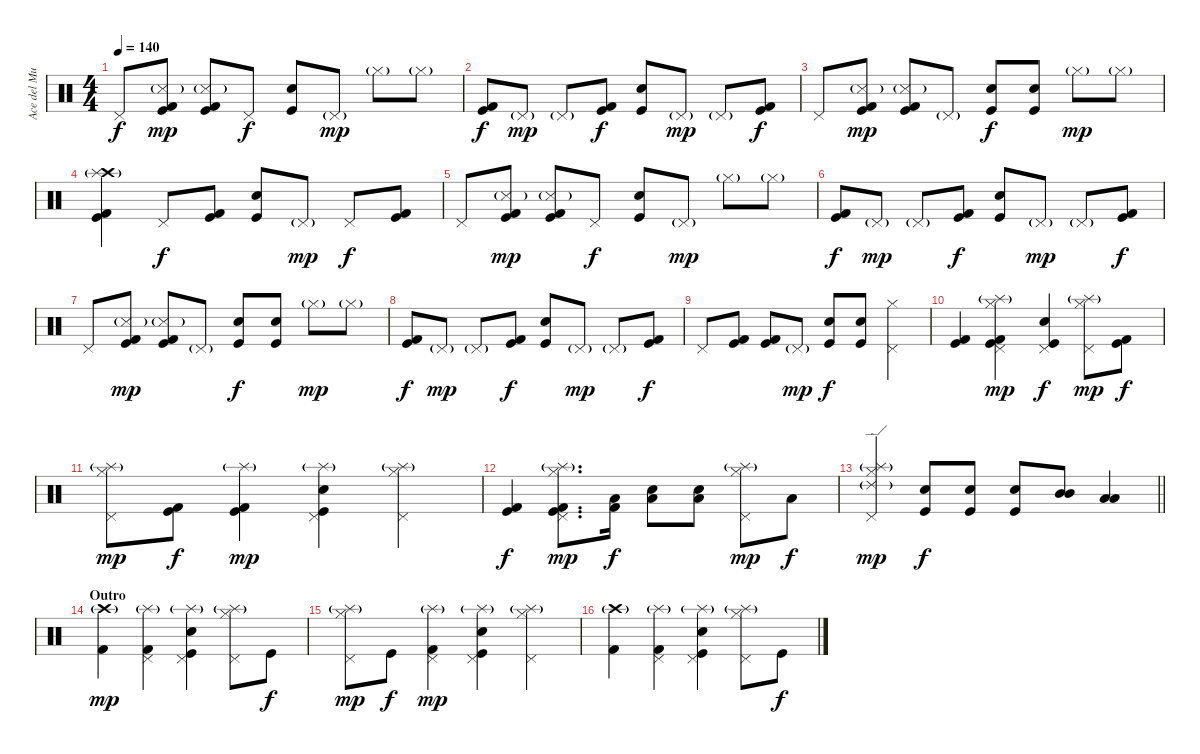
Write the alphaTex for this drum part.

\track ("Ace del Mundo(Drums)" "Ace del Mu") {instrument percussion}
\staff {score}
\articulation defaults
\ts (4 4)
\tempo 140
\clef neutral
\ks c "Pedal Hi-Hat (hit)".8{dy f}
("Kick (hit) 2" "Kick (hit)" "Snare (side stick) 3"{g}).8{dy mp} ("Kick (hit) 2" "Kick (hit)" "Snare (side stick) 3"{g}).8 "Pedal Hi-Hat (hit)".8{dy f} ("Electric Snare (hit)" "Kick (hit)").8 "Pedal Hi-Hat (hit)"{g}.8{dy mp} "Hi-Hat (closed)"{g}.8 "Hi-Hat (closed)"{g}.8 |
("Kick (hit) 2" "Kick (hit)").8{dy f} "Pedal Hi-Hat (hit)"{g}.8{dy mp} "Pedal Hi-Hat (hit)"{g}.8 ("Kick (hit) 2" "Kick (hit)").8{dy f} ("Electric Snare (hit)" "Kick (hit)").8 "Pedal Hi-Hat (hit)"{g}.8{dy mp} "Pedal Hi-Hat (hit)"{g}.8 ("Kick (hit) 2" "Kick (hit)").8{dy f} |
"Pedal Hi-Hat (hit)".8 ("Kick (hit) 2" "Kick (hit)" "Snare (side stick) 3"{g}).8{dy mp} ("Kick (hit) 2" "Kick (hit)" "Snare (side stick) 3"{g}).8 "Pedal Hi-Hat (hit)"{g}.8 ("Electric Snare (hit)" "Kick (hit)").8{dy f} ("Electric Snare (hit)" "Kick (hit)").8 "Hi-Hat (closed)"{g}.8{dy mp} "Hi-Hat (closed)"{g}.8 |
("Crash high (hit)"{g} "Splash (hit)"{g} "Kick (hit) 2" "Kick (hit)").4 "Pedal Hi-Hat (hit)".8{dy f} ("Kick (hit) 2" "Kick (hit)").8 ("Electric Snare (hit)" "Kick (hit)").8 "Pedal Hi-Hat (hit)"{g}.8{dy mp} "Pedal Hi-Hat (hit)".8{dy f} ("Kick (hit) 2" "Kick (hit)").8 |
"Pedal Hi-Hat (hit)".8 ("Kick (hit) 2" "Kick (hit)" "Snare (side stick) 3"{g}).8{dy mp} ("Kick (hit) 2" "Kick (hit)" "Snare (side stick) 3"{g}).8 "Pedal Hi-Hat (hit)".8{dy f} ("Electric Snare (hit)" "Kick (hit)").8 "Pedal Hi-Hat (hit)"{g}.8{dy mp} "Hi-Hat (closed)"{g}.8 "Hi-Hat (closed)"{g}.8 |
("Kick (hit) 2" "Kick (hit)").8{dy f} "Pedal Hi-Hat (hit)"{g}.8{dy mp} "Pedal Hi-Hat (hit)"{g}.8 ("Kick (hit) 2" "Kick (hit)").8{dy f} ("Electric Snare (hit)" "Kick (hit)").8 "Pedal Hi-Hat (hit)"{g}.8{dy mp} "Pedal Hi-Hat (hit)"{g}.8 ("Kick (hit) 2" "Kick (hit)").8{dy f} |
"Pedal Hi-Hat (hit)".8 ("Kick (hit) 2" "Kick (hit)" "Snare (side stick) 3"{g}).8{dy mp} ("Kick (hit) 2" "Kick (hit)" "Snare (side stick) 3"{g}).8 "Pedal Hi-Hat (hit)"{g}.8 ("Electric Snare (hit)" "Kick (hit)").8{dy f} ("Electric Snare (hit)" "Kick (hit)").8 "Hi-Hat (closed)"{g}.8{dy mp} "Hi-Hat (closed)"{g}.8 |
("Kick (hit) 2" "Kick (hit)").8{dy f} "Pedal Hi-Hat (hit)"{g}.8{dy mp} "Pedal Hi-Hat (hit)"{g}.8 ("Kick (hit) 2" "Kick (hit)").8{dy f} ("Electric Snare (hit)" "Kick (hit)").8 "Pedal Hi-Hat (hit)"{g}.8{dy mp} "Pedal Hi-Hat (hit)"{g}.8 ("Kick (hit) 2" "Kick (hit)").8{dy f} |
"Pedal Hi-Hat (hit)".8 ("Kick (hit) 2" "Kick (hit)").8 ("Kick (hit) 2" "Kick (hit)").8 "Pedal Hi-Hat (hit)"{g}.8{dy mp} ("Electric Snare (hit)" "Kick (hit)").8{dy f} ("Electric Snare (hit)" "Kick (hit)").8 ("Hi-Hat (closed)" "Pedal Hi-Hat (hit)").4 |
("Kick (hit) 2" "Kick (hit)").4 ("Hi-Hat (closed)" "Pedal Hi-Hat (hit)" "Splash (hit)"{g} "Kick (hit) 2" "Kick (hit)").4{dy mp} ("Pedal Hi-Hat (hit)" "Electric Snare (hit)" "Kick (hit)").4{dy f} ("Hi-Hat (closed)" "Pedal Hi-Hat (hit)" "Splash (hit)"{g}).8{dy mp} ("Kick (hit) 2" "Kick (hit)").8{dy f} |
("Hi-Hat (closed)" "Pedal Hi-Hat (hit)" "Splash (hit)"{g}).8{dy mp} ("Kick (hit) 2" "Kick (hit)").8{dy f} ("Kick (hit) 2" "Kick (hit)" "Splash (hit)"{g}).4{dy mp} ("Pedal Hi-Hat (hit)" "Electric Snare (hit)" "Kick (hit)" "Splash (hit)"{g}).4 ("Hi-Hat (closed)" "Pedal Hi-Hat (hit)" "Splash (hit)"{g}).4 |
("Kick (hit) 2" "Kick (hit)").4{dy f} ("Kick (hit) 2" "Kick (hit)" "Pedal Hi-Hat (hit)" "Hi-Hat (closed)" "Splash (hit)"{g}).8{d dy mp} ("Low Tom (hit)" "Kick (hit) 2").16{dy f} ("Electric Snare (hit)" "Low Tom (hit)").8 ("Electric Snare (hit)" "Low Tom (hit)").8 ("Hi-Hat (closed)" "Pedal Hi-Hat (hit)" "Splash (hit)"{g}).8{dy mp} "Low Tom (hit)".8{dy f} |
\barLineRight lightlight
("Pedal Hi-Hat (hit)" "Hi-Hat (closed)" "Splash (hit)"{g} "Ride (edge) 2"{g}).4{dy mp} ("Electric Snare (hit)" "Kick (hit)").8{dy f} ("Electric Snare (hit)" "Kick (hit)").8 ("Electric Snare (hit)" "Kick (hit)").8 ("Mid Tom (hit)" "Mid Tom (hit)").8 ("Low Tom (hit)" "Low Tom (hit)").4 |
\section ("" "Outro")
("Crash high (hit)"{g} "Kick (hit) 2").4{dy mp} ("Pedal Hi-Hat (hit)" "Kick (hit) 2" "Splash (hit)"{g}).4 ("Pedal Hi-Hat (hit)" "Electric Snare (hit)" "Kick (hit)" "Splash (hit)"{g}).4 ("Hi-Hat (closed)" "Pedal Hi-Hat (hit)" "Splash (hit)"{g}).8 "Kick (hit)".8{dy f} |
("Hi-Hat (closed)" "Pedal Hi-Hat (hit)" "Splash (hit)"{g}).8{dy mp} "Kick (hit)".8{dy f} ("Pedal Hi-Hat (hit)" "Kick (hit) 2" "Splash (hit)"{g}).4{dy mp} ("Pedal Hi-Hat (hit)" "Electric Snare (hit)" "Kick (hit)" "Splash (hit)"{g}).4 ("Hi-Hat (closed)" "Pedal Hi-Hat (hit)" "Splash (hit)"{g}).4 |
("Crash high (hit)"{g} "Kick (hit) 2").4 ("Pedal Hi-Hat (hit)" "Kick (hit) 2" "Splash (hit)"{g}).4 ("Pedal Hi-Hat (hit)" "Electric Snare (hit)" "Kick (hit)" "Splash (hit)"{g}).4 ("Hi-Hat (closed)" "Pedal Hi-Hat (hit)" "Splash (hit)"{g}).8 "Kick (hit)".8{dy f}
